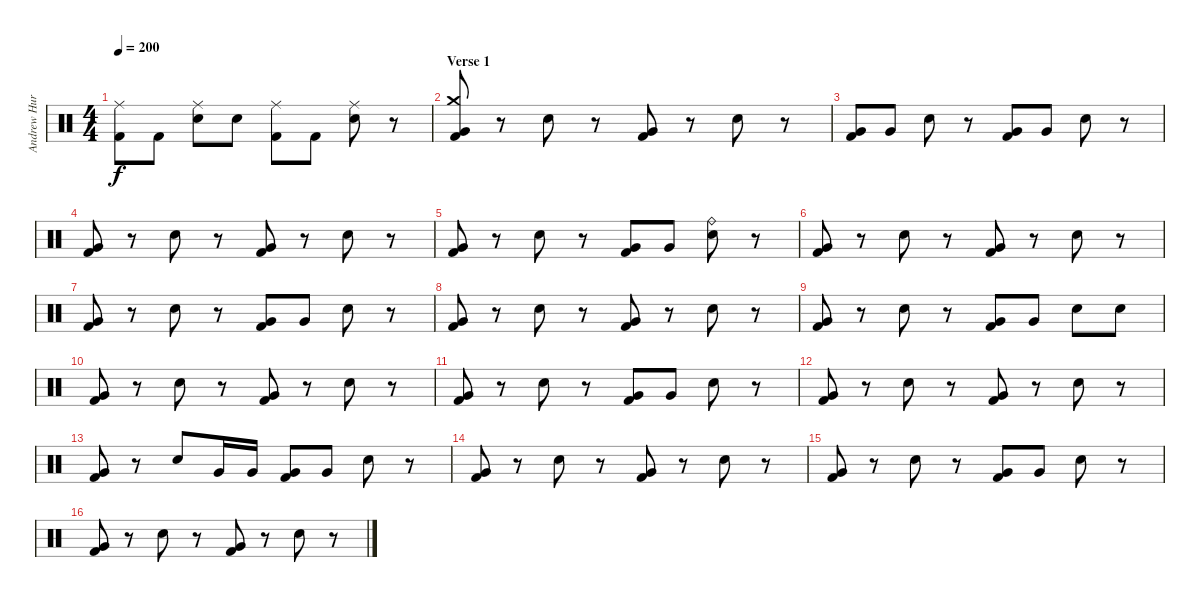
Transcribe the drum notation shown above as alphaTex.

\track ("Andrew Hurley (Drums)" "Andrew Hur") {instrument percussion}
\staff {score}
\articulation defaults
\ts (4 4)
\tempo 200
\clef neutral
\ks c
("Ride (middle)" "Kick (hit) 2").8{dy f} "Kick (hit) 2".8 ("Ride (middle)" "Electric Snare (hit)").8 "Electric Snare (hit)".8 ("Ride (middle)" "Kick (hit) 2").8 "Kick (hit) 2".8 ("Ride (middle)" "Electric Snare (hit)").8 r.8 |
\section ("" "Verse 1")
("Crash medium (hit)" "Very Low Tom (hit)" "Kick (hit) 2").8 r.8 "Electric Snare (hit)".8 r.8 ("Very Low Tom (hit)" "Kick (hit) 2").8 r.8 "Electric Snare (hit)".8 r.8 |
("Very Low Tom (hit)" "Kick (hit) 2").8 "Very Low Tom (hit)".8 "Electric Snare (hit)".8 r.8 ("Very Low Tom (hit)" "Kick (hit) 2").8 "Very Low Tom (hit)".8 "Electric Snare (hit)".8 r.8 |
("Very Low Tom (hit)" "Kick (hit) 2").8 r.8 "Electric Snare (hit)".8 r.8 ("Very Low Tom (hit)" "Kick (hit) 2").8 r.8 "Electric Snare (hit)".8 r.8 |
("Very Low Tom (hit)" "Kick (hit) 2").8 r.8 "Electric Snare (hit)".8 r.8 ("Very Low Tom (hit)" "Kick (hit) 2").8 "Very Low Tom (hit)".8 ("Ride (bell)" "Electric Snare (hit)").8 r.8 |
("Very Low Tom (hit)" "Kick (hit) 2").8 r.8 "Electric Snare (hit)".8 r.8 ("Very Low Tom (hit)" "Kick (hit) 2").8 r.8 "Electric Snare (hit)".8 r.8 |
("Very Low Tom (hit)" "Kick (hit) 2").8 r.8 "Electric Snare (hit)".8 r.8 ("Very Low Tom (hit)" "Kick (hit) 2").8 "Very Low Tom (hit)".8 "Electric Snare (hit)".8 r.8 |
("Very Low Tom (hit)" "Kick (hit) 2").8 r.8 "Electric Snare (hit)".8 r.8 ("Very Low Tom (hit)" "Kick (hit) 2").8 r.8 "Electric Snare (hit)".8 r.8 |
("Very Low Tom (hit)" "Kick (hit) 2").8 r.8 "Electric Snare (hit)".8 r.8 ("Very Low Tom (hit)" "Kick (hit) 2").8 "Very Low Tom (hit)".8 "Electric Snare (hit)".8 "Electric Snare (hit)".8 |
("Very Low Tom (hit)" "Kick (hit) 2").8 r.8 "Electric Snare (hit)".8 r.8 ("Very Low Tom (hit)" "Kick (hit) 2").8 r.8 "Electric Snare (hit)".8 r.8 |
("Very Low Tom (hit)" "Kick (hit) 2").8 r.8 "Electric Snare (hit)".8 r.8 ("Very Low Tom (hit)" "Kick (hit) 2").8 "Very Low Tom (hit)".8 "Electric Snare (hit)".8 r.8 |
("Very Low Tom (hit)" "Kick (hit) 2").8 r.8 "Electric Snare (hit)".8 r.8 ("Very Low Tom (hit)" "Kick (hit) 2").8 r.8 "Electric Snare (hit)".8 r.8 |
("Very Low Tom (hit)" "Kick (hit) 2").8 r.8 "Electric Snare (hit)".8 "Very Low Tom (hit)".16 "Very Low Tom (hit)".16 ("Very Low Tom (hit)" "Kick (hit) 2").8 "Very Low Tom (hit)".8 "Electric Snare (hit)".8 r.8 |
("Very Low Tom (hit)" "Kick (hit) 2").8 r.8 "Electric Snare (hit)".8 r.8 ("Very Low Tom (hit)" "Kick (hit) 2").8 r.8 "Electric Snare (hit)".8 r.8 |
("Very Low Tom (hit)" "Kick (hit) 2").8 r.8 "Electric Snare (hit)".8 r.8 ("Very Low Tom (hit)" "Kick (hit) 2").8 "Very Low Tom (hit)".8 "Electric Snare (hit)".8 r.8 |
("Very Low Tom (hit)" "Kick (hit) 2").8 r.8 "Electric Snare (hit)".8 r.8 ("Very Low Tom (hit)" "Kick (hit) 2").8 r.8 "Electric Snare (hit)".8 r.8
